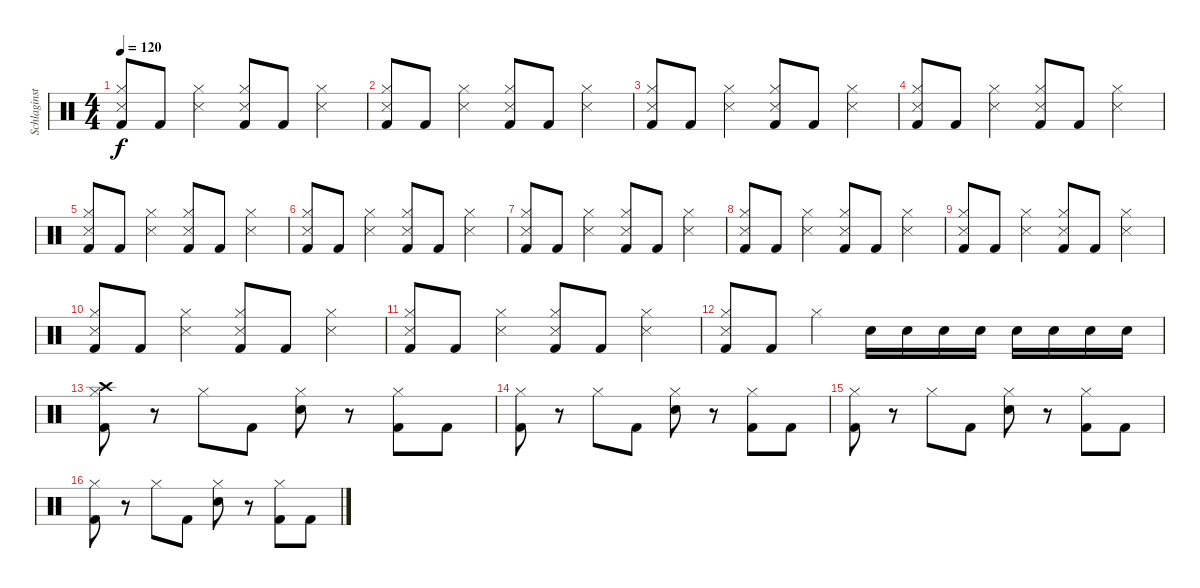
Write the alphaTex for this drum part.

\track ("Schlaginstrumente - Auswahl" "Schlaginst") {instrument percussion}
\staff {score}
\articulation defaults
\ts (4 4)
\tempo 120
\clef neutral
\ks c
("Kick (hit) 2" "Hi-Hat (closed)" "Snare (side stick) 3").8{dy f} "Kick (hit) 2".8 ("Hi-Hat (closed)" "Snare (side stick) 3").4 ("Kick (hit) 2" "Hi-Hat (closed)" "Snare (side stick) 3").8 "Kick (hit) 2".8 ("Hi-Hat (closed)" "Snare (side stick) 3").4 |
("Kick (hit) 2" "Hi-Hat (closed)" "Snare (side stick) 3").8 "Kick (hit) 2".8 ("Hi-Hat (closed)" "Snare (side stick) 3").4 ("Kick (hit) 2" "Hi-Hat (closed)" "Snare (side stick) 3").8 "Kick (hit) 2".8 ("Hi-Hat (closed)" "Snare (side stick) 3").4 |
("Kick (hit) 2" "Hi-Hat (closed)" "Snare (side stick) 3").8 "Kick (hit) 2".8 ("Hi-Hat (closed)" "Snare (side stick) 3").4 ("Kick (hit) 2" "Hi-Hat (closed)" "Snare (side stick) 3").8 "Kick (hit) 2".8 ("Hi-Hat (closed)" "Snare (side stick) 3").4 |
("Kick (hit) 2" "Hi-Hat (closed)" "Snare (side stick) 3").8 "Kick (hit) 2".8 ("Hi-Hat (closed)" "Snare (side stick) 3").4 ("Kick (hit) 2" "Hi-Hat (closed)" "Snare (side stick) 3").8 "Kick (hit) 2".8 ("Hi-Hat (closed)" "Snare (side stick) 3").4 |
("Kick (hit) 2" "Hi-Hat (closed)" "Snare (side stick) 3").8 "Kick (hit) 2".8 ("Hi-Hat (closed)" "Snare (side stick) 3").4 ("Kick (hit) 2" "Hi-Hat (closed)" "Snare (side stick) 3").8 "Kick (hit) 2".8 ("Hi-Hat (closed)" "Snare (side stick) 3").4 |
("Kick (hit) 2" "Hi-Hat (closed)" "Snare (side stick) 3").8 "Kick (hit) 2".8 ("Hi-Hat (closed)" "Snare (side stick) 3").4 ("Kick (hit) 2" "Hi-Hat (closed)" "Snare (side stick) 3").8 "Kick (hit) 2".8 ("Hi-Hat (closed)" "Snare (side stick) 3").4 |
("Kick (hit) 2" "Hi-Hat (closed)" "Snare (side stick) 3").8 "Kick (hit) 2".8 ("Hi-Hat (closed)" "Snare (side stick) 3").4 ("Kick (hit) 2" "Hi-Hat (closed)" "Snare (side stick) 3").8 "Kick (hit) 2".8 ("Hi-Hat (closed)" "Snare (side stick) 3").4 |
("Kick (hit) 2" "Hi-Hat (closed)" "Snare (side stick) 3").8 "Kick (hit) 2".8 ("Hi-Hat (closed)" "Snare (side stick) 3").4 ("Kick (hit) 2" "Hi-Hat (closed)" "Snare (side stick) 3").8 "Kick (hit) 2".8 ("Hi-Hat (closed)" "Snare (side stick) 3").4 |
("Kick (hit) 2" "Hi-Hat (closed)" "Snare (side stick) 3").8 "Kick (hit) 2".8 ("Hi-Hat (closed)" "Snare (side stick) 3").4 ("Kick (hit) 2" "Hi-Hat (closed)" "Snare (side stick) 3").8 "Kick (hit) 2".8 ("Hi-Hat (closed)" "Snare (side stick) 3").4 |
("Kick (hit) 2" "Hi-Hat (closed)" "Snare (side stick) 3").8 "Kick (hit) 2".8 ("Hi-Hat (closed)" "Snare (side stick) 3").4 ("Kick (hit) 2" "Hi-Hat (closed)" "Snare (side stick) 3").8 "Kick (hit) 2".8 ("Hi-Hat (closed)" "Snare (side stick) 3").4 |
("Kick (hit) 2" "Hi-Hat (closed)" "Snare (side stick) 3").8 "Kick (hit) 2".8 ("Hi-Hat (closed)" "Snare (side stick) 3").4 ("Kick (hit) 2" "Hi-Hat (closed)" "Snare (side stick) 3").8 "Kick (hit) 2".8 ("Hi-Hat (closed)" "Snare (side stick) 3").4 |
("Kick (hit) 2" "Hi-Hat (closed)" "Snare (side stick) 3").8 "Kick (hit) 2".8 "Hi-Hat (closed)".4 "Snare (hit) 2".16 "Snare (hit) 2".16 "Snare (hit) 2".16 "Snare (hit) 2".16 "Snare (hit) 2".16 "Snare (hit) 2".16 "Snare (hit) 2".16 "Snare (hit) 2".16 |
("Crash high (hit)" "Hi-Hat (closed)" "Kick (hit) 2").8 r.8 "Hi-Hat (closed)".8 "Kick (hit) 2".8 ("Hi-Hat (closed)" "Snare (hit) 2").8 r.8 ("Hi-Hat (closed)" "Kick (hit) 2").8 "Kick (hit) 2".8 |
("Hi-Hat (closed)" "Kick (hit) 2").8 r.8 "Hi-Hat (closed)".8 "Kick (hit) 2".8 ("Hi-Hat (closed)" "Snare (hit) 2").8 r.8 ("Hi-Hat (closed)" "Kick (hit) 2").8 "Kick (hit) 2".8 |
("Hi-Hat (closed)" "Kick (hit) 2").8 r.8 "Hi-Hat (closed)".8 "Kick (hit) 2".8 ("Hi-Hat (closed)" "Snare (hit) 2").8 r.8 ("Hi-Hat (closed)" "Kick (hit) 2").8 "Kick (hit) 2".8 |
("Hi-Hat (closed)" "Kick (hit) 2").8 r.8 "Hi-Hat (closed)".8 "Kick (hit) 2".8 ("Hi-Hat (closed)" "Snare (hit) 2").8 r.8 ("Hi-Hat (closed)" "Kick (hit) 2").8 "Kick (hit) 2".8
